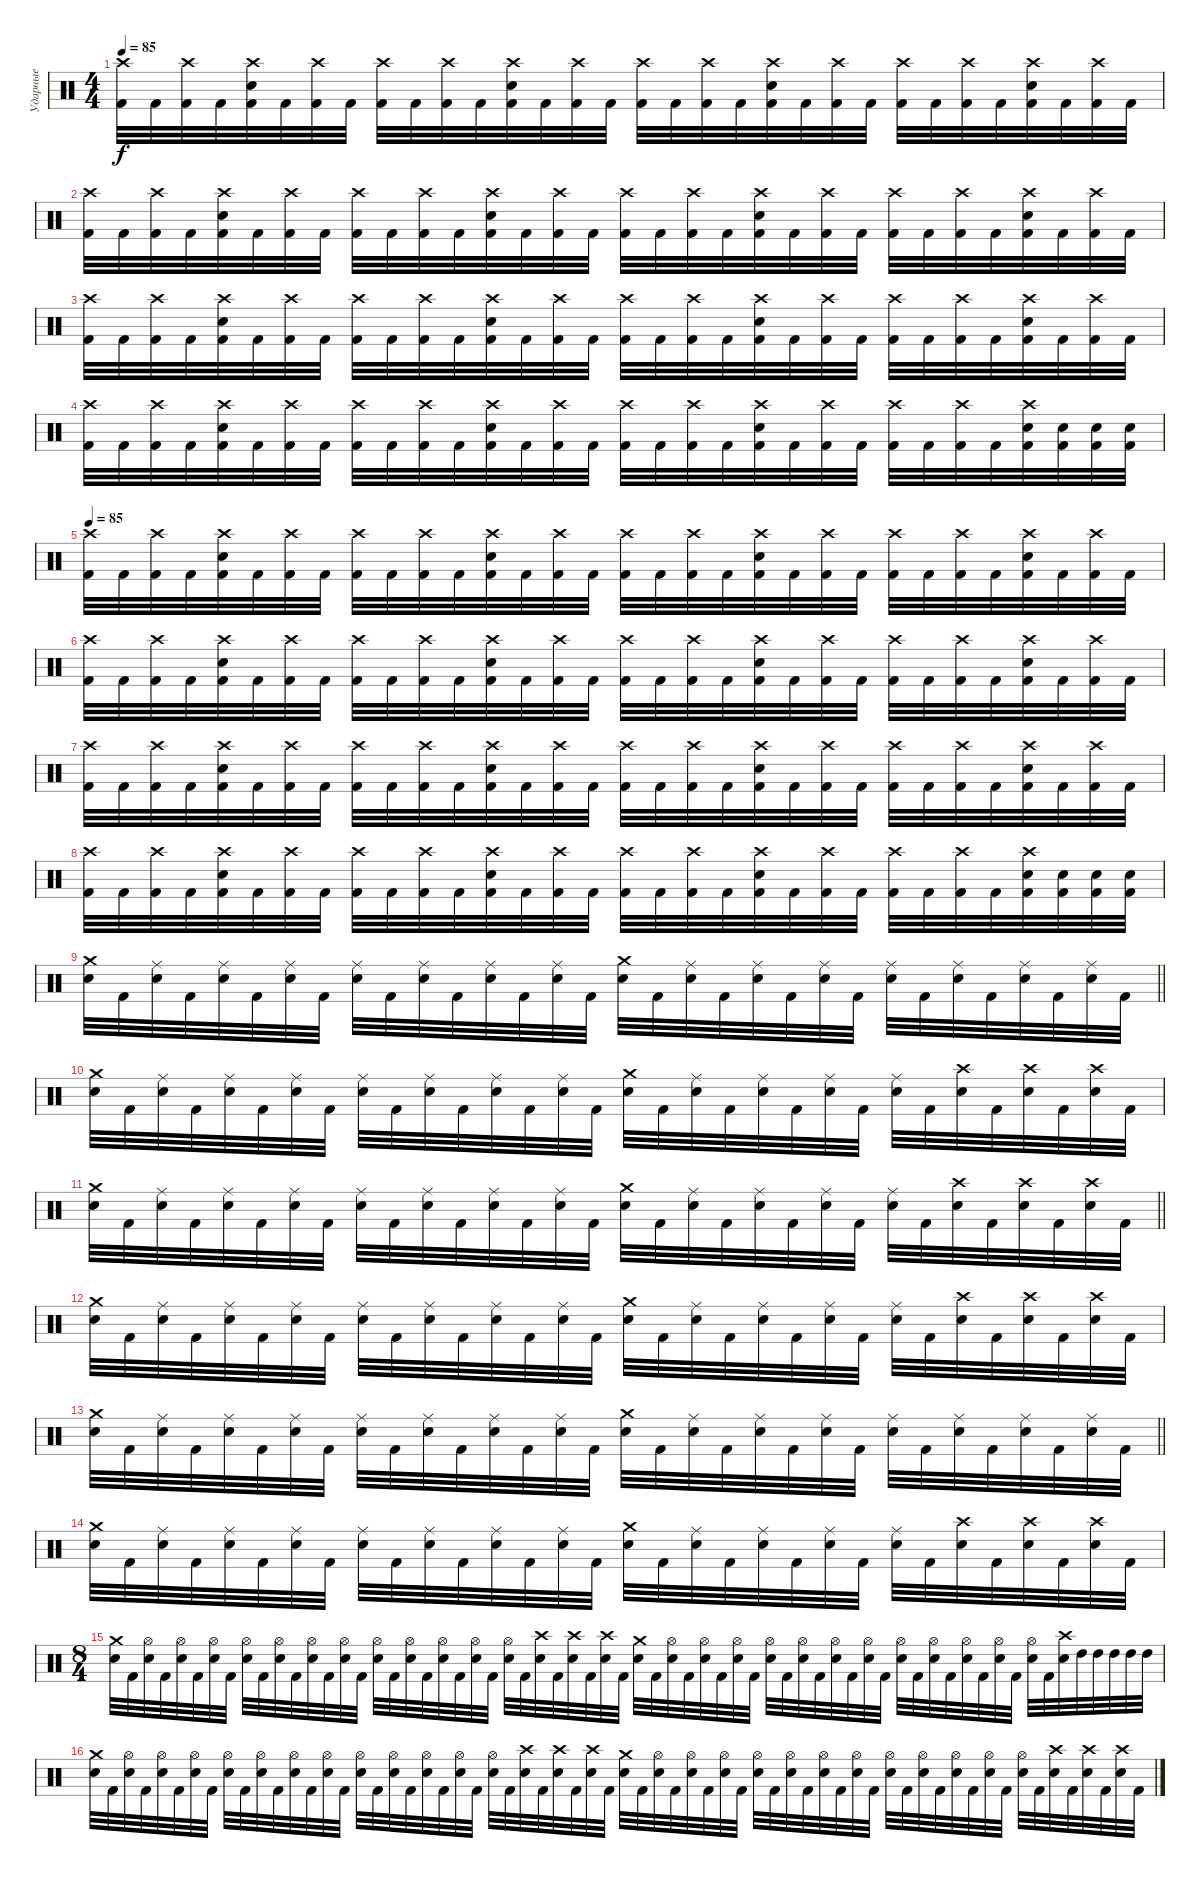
\track ("Ударные" "Ударные") {instrument percussion}
\staff {score}
\articulation defaults
\ts (4 4)
\tempo 85
\clef neutral
\ks c
("Kick (hit) 2" "Crash high (hit)").32{dy f} "Kick (hit) 2".32 ("Kick (hit) 2" "Crash high (hit)").32 "Kick (hit) 2".32 ("Kick (hit) 2" "Snare (hit) 2" "Crash high (hit)").32 "Kick (hit) 2".32 ("Kick (hit) 2" "Crash high (hit)").32 "Kick (hit) 2".32 ("Kick (hit) 2" "Crash high (hit)").32 "Kick (hit) 2".32 ("Kick (hit) 2" "Crash high (hit)").32 "Kick (hit) 2".32 ("Kick (hit) 2" "Snare (hit) 2" "Crash high (hit)").32 "Kick (hit) 2".32 ("Kick (hit) 2" "Crash high (hit)").32 "Kick (hit) 2".32 ("Kick (hit) 2" "Crash high (hit)").32 "Kick (hit) 2".32 ("Kick (hit) 2" "Crash high (hit)").32 "Kick (hit) 2".32 ("Kick (hit) 2" "Snare (hit) 2" "Crash high (hit)").32 "Kick (hit) 2".32 ("Kick (hit) 2" "Crash high (hit)").32 "Kick (hit) 2".32 ("Kick (hit) 2" "Crash high (hit)").32 "Kick (hit) 2".32 ("Kick (hit) 2" "Crash high (hit)").32 "Kick (hit) 2".32 ("Kick (hit) 2" "Snare (hit) 2" "Crash high (hit)").32 "Kick (hit) 2".32 ("Kick (hit) 2" "Crash high (hit)").32 "Kick (hit) 2".32 |
("Kick (hit) 2" "Crash high (hit)").32 "Kick (hit) 2".32 ("Kick (hit) 2" "Crash high (hit)").32 "Kick (hit) 2".32 ("Kick (hit) 2" "Snare (hit) 2" "Crash high (hit)").32 "Kick (hit) 2".32 ("Kick (hit) 2" "Crash high (hit)").32 "Kick (hit) 2".32 ("Kick (hit) 2" "Crash high (hit)").32 "Kick (hit) 2".32 ("Kick (hit) 2" "Crash high (hit)").32 "Kick (hit) 2".32 ("Kick (hit) 2" "Snare (hit) 2" "Crash high (hit)").32 "Kick (hit) 2".32 ("Kick (hit) 2" "Crash high (hit)").32 "Kick (hit) 2".32 ("Kick (hit) 2" "Crash high (hit)").32 "Kick (hit) 2".32 ("Kick (hit) 2" "Crash high (hit)").32 "Kick (hit) 2".32 ("Kick (hit) 2" "Snare (hit) 2" "Crash high (hit)").32 "Kick (hit) 2".32 ("Kick (hit) 2" "Crash high (hit)").32 "Kick (hit) 2".32 ("Kick (hit) 2" "Crash high (hit)").32 "Kick (hit) 2".32 ("Kick (hit) 2" "Crash high (hit)").32 "Kick (hit) 2".32 ("Kick (hit) 2" "Snare (hit) 2" "Crash high (hit)").32 "Kick (hit) 2".32 ("Kick (hit) 2" "Crash high (hit)").32 "Kick (hit) 2".32 |
("Kick (hit) 2" "Crash high (hit)").32 "Kick (hit) 2".32 ("Kick (hit) 2" "Crash high (hit)").32 "Kick (hit) 2".32 ("Kick (hit) 2" "Snare (hit) 2" "Crash high (hit)").32 "Kick (hit) 2".32 ("Kick (hit) 2" "Crash high (hit)").32 "Kick (hit) 2".32 ("Kick (hit) 2" "Crash high (hit)").32 "Kick (hit) 2".32 ("Kick (hit) 2" "Crash high (hit)").32 "Kick (hit) 2".32 ("Kick (hit) 2" "Snare (hit) 2" "Crash high (hit)").32 "Kick (hit) 2".32 ("Kick (hit) 2" "Crash high (hit)").32 "Kick (hit) 2".32 ("Kick (hit) 2" "Crash high (hit)").32 "Kick (hit) 2".32 ("Kick (hit) 2" "Crash high (hit)").32 "Kick (hit) 2".32 ("Kick (hit) 2" "Snare (hit) 2" "Crash high (hit)").32 "Kick (hit) 2".32 ("Kick (hit) 2" "Crash high (hit)").32 "Kick (hit) 2".32 ("Kick (hit) 2" "Crash high (hit)").32 "Kick (hit) 2".32 ("Kick (hit) 2" "Crash high (hit)").32 "Kick (hit) 2".32 ("Kick (hit) 2" "Snare (hit) 2" "Crash high (hit)").32 "Kick (hit) 2".32 ("Kick (hit) 2" "Crash high (hit)").32 "Kick (hit) 2".32 |
("Kick (hit) 2" "Crash high (hit)").32 "Kick (hit) 2".32 ("Kick (hit) 2" "Crash high (hit)").32 "Kick (hit) 2".32 ("Kick (hit) 2" "Snare (hit) 2" "Crash high (hit)").32 "Kick (hit) 2".32 ("Kick (hit) 2" "Crash high (hit)").32 "Kick (hit) 2".32 ("Kick (hit) 2" "Crash high (hit)").32 "Kick (hit) 2".32 ("Kick (hit) 2" "Crash high (hit)").32 "Kick (hit) 2".32 ("Kick (hit) 2" "Snare (hit) 2" "Crash high (hit)").32 "Kick (hit) 2".32 ("Kick (hit) 2" "Crash high (hit)").32 "Kick (hit) 2".32 ("Kick (hit) 2" "Crash high (hit)").32 "Kick (hit) 2".32 ("Kick (hit) 2" "Crash high (hit)").32 "Kick (hit) 2".32 ("Kick (hit) 2" "Snare (hit) 2" "Crash high (hit)").32 "Kick (hit) 2".32 ("Kick (hit) 2" "Crash high (hit)").32 "Kick (hit) 2".32 ("Kick (hit) 2" "Crash high (hit)").32 "Kick (hit) 2".32 ("Kick (hit) 2" "Crash high (hit)").32 "Kick (hit) 2".32 ("Kick (hit) 2" "Snare (hit) 2" "Crash high (hit)").32 ("Kick (hit) 2" "Snare (hit) 2").32 ("Kick (hit) 2" "Snare (hit) 2").32 ("Kick (hit) 2" "Snare (hit) 2").32 |
\tempo 85
("Kick (hit) 2" "Crash high (hit)").32 "Kick (hit) 2".32 ("Kick (hit) 2" "Crash high (hit)").32 "Kick (hit) 2".32 ("Kick (hit) 2" "Snare (hit) 2" "Crash high (hit)").32 "Kick (hit) 2".32 ("Kick (hit) 2" "Crash high (hit)").32 "Kick (hit) 2".32 ("Kick (hit) 2" "Crash high (hit)").32 "Kick (hit) 2".32 ("Kick (hit) 2" "Crash high (hit)").32 "Kick (hit) 2".32 ("Kick (hit) 2" "Snare (hit) 2" "Crash high (hit)").32 "Kick (hit) 2".32 ("Kick (hit) 2" "Crash high (hit)").32 "Kick (hit) 2".32 ("Kick (hit) 2" "Crash high (hit)").32 "Kick (hit) 2".32 ("Kick (hit) 2" "Crash high (hit)").32 "Kick (hit) 2".32 ("Kick (hit) 2" "Snare (hit) 2" "Crash high (hit)").32 "Kick (hit) 2".32 ("Kick (hit) 2" "Crash high (hit)").32 "Kick (hit) 2".32 ("Kick (hit) 2" "Crash high (hit)").32 "Kick (hit) 2".32 ("Kick (hit) 2" "Crash high (hit)").32 "Kick (hit) 2".32 ("Kick (hit) 2" "Snare (hit) 2" "Crash high (hit)").32 "Kick (hit) 2".32 ("Kick (hit) 2" "Crash high (hit)").32 "Kick (hit) 2".32 |
("Kick (hit) 2" "Crash high (hit)").32 "Kick (hit) 2".32 ("Kick (hit) 2" "Crash high (hit)").32 "Kick (hit) 2".32 ("Kick (hit) 2" "Snare (hit) 2" "Crash high (hit)").32 "Kick (hit) 2".32 ("Kick (hit) 2" "Crash high (hit)").32 "Kick (hit) 2".32 ("Kick (hit) 2" "Crash high (hit)").32 "Kick (hit) 2".32 ("Kick (hit) 2" "Crash high (hit)").32 "Kick (hit) 2".32 ("Kick (hit) 2" "Snare (hit) 2" "Crash high (hit)").32 "Kick (hit) 2".32 ("Kick (hit) 2" "Crash high (hit)").32 "Kick (hit) 2".32 ("Kick (hit) 2" "Crash high (hit)").32 "Kick (hit) 2".32 ("Kick (hit) 2" "Crash high (hit)").32 "Kick (hit) 2".32 ("Kick (hit) 2" "Snare (hit) 2" "Crash high (hit)").32 "Kick (hit) 2".32 ("Kick (hit) 2" "Crash high (hit)").32 "Kick (hit) 2".32 ("Kick (hit) 2" "Crash high (hit)").32 "Kick (hit) 2".32 ("Kick (hit) 2" "Crash high (hit)").32 "Kick (hit) 2".32 ("Kick (hit) 2" "Snare (hit) 2" "Crash high (hit)").32 "Kick (hit) 2".32 ("Kick (hit) 2" "Crash high (hit)").32 "Kick (hit) 2".32 |
("Kick (hit) 2" "Crash high (hit)").32 "Kick (hit) 2".32 ("Kick (hit) 2" "Crash high (hit)").32 "Kick (hit) 2".32 ("Kick (hit) 2" "Snare (hit) 2" "Crash high (hit)").32 "Kick (hit) 2".32 ("Kick (hit) 2" "Crash high (hit)").32 "Kick (hit) 2".32 ("Kick (hit) 2" "Crash high (hit)").32 "Kick (hit) 2".32 ("Kick (hit) 2" "Crash high (hit)").32 "Kick (hit) 2".32 ("Kick (hit) 2" "Snare (hit) 2" "Crash high (hit)").32 "Kick (hit) 2".32 ("Kick (hit) 2" "Crash high (hit)").32 "Kick (hit) 2".32 ("Kick (hit) 2" "Crash high (hit)").32 "Kick (hit) 2".32 ("Kick (hit) 2" "Crash high (hit)").32 "Kick (hit) 2".32 ("Kick (hit) 2" "Snare (hit) 2" "Crash high (hit)").32 "Kick (hit) 2".32 ("Kick (hit) 2" "Crash high (hit)").32 "Kick (hit) 2".32 ("Kick (hit) 2" "Crash high (hit)").32 "Kick (hit) 2".32 ("Kick (hit) 2" "Crash high (hit)").32 "Kick (hit) 2".32 ("Kick (hit) 2" "Snare (hit) 2" "Crash high (hit)").32 "Kick (hit) 2".32 ("Kick (hit) 2" "Crash high (hit)").32 "Kick (hit) 2".32 |
("Kick (hit) 2" "Crash high (hit)").32 "Kick (hit) 2".32 ("Kick (hit) 2" "Crash high (hit)").32 "Kick (hit) 2".32 ("Kick (hit) 2" "Snare (hit) 2" "Crash high (hit)").32 "Kick (hit) 2".32 ("Kick (hit) 2" "Crash high (hit)").32 "Kick (hit) 2".32 ("Kick (hit) 2" "Crash high (hit)").32 "Kick (hit) 2".32 ("Kick (hit) 2" "Crash high (hit)").32 "Kick (hit) 2".32 ("Kick (hit) 2" "Snare (hit) 2" "Crash high (hit)").32 "Kick (hit) 2".32 ("Kick (hit) 2" "Crash high (hit)").32 "Kick (hit) 2".32 ("Kick (hit) 2" "Crash high (hit)").32 "Kick (hit) 2".32 ("Kick (hit) 2" "Crash high (hit)").32 "Kick (hit) 2".32 ("Kick (hit) 2" "Snare (hit) 2" "Crash high (hit)").32 "Kick (hit) 2".32 ("Kick (hit) 2" "Crash high (hit)").32 "Kick (hit) 2".32 ("Kick (hit) 2" "Crash high (hit)").32 "Kick (hit) 2".32 ("Kick (hit) 2" "Crash high (hit)").32 "Kick (hit) 2".32 ("Kick (hit) 2" "Snare (hit) 2" "Crash high (hit)").32 ("Kick (hit) 2" "Snare (hit) 2").32 ("Kick (hit) 2" "Snare (hit) 2").32 ("Kick (hit) 2" "Snare (hit) 2").32 |
\barLineRight lightlight
("Crash medium (hit)" "Electric Snare (hit)").32 "Kick (hit) 2".32 ("Ride (middle)" "Electric Snare (hit)").32 "Kick (hit) 2".32 ("Ride (middle)" "Electric Snare (hit)").32 "Kick (hit) 2".32 ("Ride (middle)" "Electric Snare (hit)").32 "Kick (hit) 2".32 ("Ride (middle)" "Electric Snare (hit)").32 "Kick (hit) 2".32 ("Ride (middle)" "Electric Snare (hit)").32 "Kick (hit) 2".32 ("Ride (middle)" "Electric Snare (hit)").32 "Kick (hit) 2".32 ("Ride (middle)" "Electric Snare (hit)").32 "Kick (hit) 2".32 ("Crash medium (hit)" "Electric Snare (hit)").32 "Kick (hit) 2".32 ("Ride (middle)" "Electric Snare (hit)").32 "Kick (hit) 2".32 ("Ride (middle)" "Electric Snare (hit)").32 "Kick (hit) 2".32 ("Ride (middle)" "Electric Snare (hit)").32 "Kick (hit) 2".32 ("Ride (middle)" "Electric Snare (hit)").32 "Kick (hit) 2".32 ("Ride (middle)" "Electric Snare (hit)").32 "Kick (hit) 2".32 ("Ride (middle)" "Electric Snare (hit)").32 "Kick (hit) 2".32 ("Ride (middle)" "Electric Snare (hit)").32 "Kick (hit) 2".32 |
("Crash medium (hit)" "Electric Snare (hit)").32 "Kick (hit) 2".32 ("Ride (middle)" "Electric Snare (hit)").32 "Kick (hit) 2".32 ("Ride (middle)" "Electric Snare (hit)").32 "Kick (hit) 2".32 ("Ride (middle)" "Electric Snare (hit)").32 "Kick (hit) 2".32 ("Ride (middle)" "Electric Snare (hit)").32 "Kick (hit) 2".32 ("Ride (middle)" "Electric Snare (hit)").32 "Kick (hit) 2".32 ("Ride (middle)" "Electric Snare (hit)").32 "Kick (hit) 2".32 ("Ride (middle)" "Electric Snare (hit)").32 "Kick (hit) 2".32 ("Crash medium (hit)" "Electric Snare (hit)").32 "Kick (hit) 2".32 ("Ride (middle)" "Electric Snare (hit)").32 "Kick (hit) 2".32 ("Ride (middle)" "Electric Snare (hit)").32 "Kick (hit) 2".32 ("Ride (middle)" "Electric Snare (hit)").32 "Kick (hit) 2".32 ("Ride (middle)" "Electric Snare (hit)").32 "Kick (hit) 2".32 ("Crash high (hit)" "Electric Snare (hit)").32 "Kick (hit) 2".32 ("Crash high (hit)" "Electric Snare (hit)").32 "Kick (hit) 2".32 ("Crash high (hit)" "Electric Snare (hit)").32 "Kick (hit) 2".32 |
\barLineRight lightlight
("Crash medium (hit)" "Electric Snare (hit)").32 "Kick (hit) 2".32 ("Ride (middle)" "Electric Snare (hit)").32 "Kick (hit) 2".32 ("Ride (middle)" "Electric Snare (hit)").32 "Kick (hit) 2".32 ("Ride (middle)" "Electric Snare (hit)").32 "Kick (hit) 2".32 ("Ride (middle)" "Electric Snare (hit)").32 "Kick (hit) 2".32 ("Ride (middle)" "Electric Snare (hit)").32 "Kick (hit) 2".32 ("Ride (middle)" "Electric Snare (hit)").32 "Kick (hit) 2".32 ("Ride (middle)" "Electric Snare (hit)").32 "Kick (hit) 2".32 ("Crash medium (hit)" "Electric Snare (hit)").32 "Kick (hit) 2".32 ("Ride (middle)" "Electric Snare (hit)").32 "Kick (hit) 2".32 ("Ride (middle)" "Electric Snare (hit)").32 "Kick (hit) 2".32 ("Ride (middle)" "Electric Snare (hit)").32 "Kick (hit) 2".32 ("Ride (middle)" "Electric Snare (hit)").32 "Kick (hit) 2".32 ("Crash high (hit)" "Electric Snare (hit)").32 "Kick (hit) 2".32 ("Crash high (hit)" "Electric Snare (hit)").32 "Kick (hit) 2".32 ("Crash high (hit)" "Electric Snare (hit)").32 "Kick (hit) 2".32 |
("Crash medium (hit)" "Electric Snare (hit)").32 "Kick (hit) 2".32 ("Ride (middle)" "Electric Snare (hit)").32 "Kick (hit) 2".32 ("Ride (middle)" "Electric Snare (hit)").32 "Kick (hit) 2".32 ("Ride (middle)" "Electric Snare (hit)").32 "Kick (hit) 2".32 ("Ride (middle)" "Electric Snare (hit)").32 "Kick (hit) 2".32 ("Ride (middle)" "Electric Snare (hit)").32 "Kick (hit) 2".32 ("Ride (middle)" "Electric Snare (hit)").32 "Kick (hit) 2".32 ("Ride (middle)" "Electric Snare (hit)").32 "Kick (hit) 2".32 ("Crash medium (hit)" "Electric Snare (hit)").32 "Kick (hit) 2".32 ("Ride (middle)" "Electric Snare (hit)").32 "Kick (hit) 2".32 ("Ride (middle)" "Electric Snare (hit)").32 "Kick (hit) 2".32 ("Ride (middle)" "Electric Snare (hit)").32 "Kick (hit) 2".32 ("Ride (middle)" "Electric Snare (hit)").32 "Kick (hit) 2".32 ("Crash high (hit)" "Electric Snare (hit)").32 "Kick (hit) 2".32 ("Crash high (hit)" "Electric Snare (hit)").32 "Kick (hit) 2".32 ("Crash high (hit)" "Electric Snare (hit)").32 "Kick (hit) 2".32 |
\barLineRight lightlight
("Crash medium (hit)" "Electric Snare (hit)").32 "Kick (hit) 2".32 ("Ride (middle)" "Electric Snare (hit)").32 "Kick (hit) 2".32 ("Ride (middle)" "Electric Snare (hit)").32 "Kick (hit) 2".32 ("Ride (middle)" "Electric Snare (hit)").32 "Kick (hit) 2".32 ("Ride (middle)" "Electric Snare (hit)").32 "Kick (hit) 2".32 ("Ride (middle)" "Electric Snare (hit)").32 "Kick (hit) 2".32 ("Ride (middle)" "Electric Snare (hit)").32 "Kick (hit) 2".32 ("Ride (middle)" "Electric Snare (hit)").32 "Kick (hit) 2".32 ("Crash medium (hit)" "Electric Snare (hit)").32 "Kick (hit) 2".32 ("Ride (middle)" "Electric Snare (hit)").32 "Kick (hit) 2".32 ("Ride (middle)" "Electric Snare (hit)").32 "Kick (hit) 2".32 ("Ride (middle)" "Electric Snare (hit)").32 "Kick (hit) 2".32 ("Ride (middle)" "Electric Snare (hit)").32 "Kick (hit) 2".32 ("Ride (middle)" "Electric Snare (hit)").32 "Kick (hit) 2".32 ("Ride (middle)" "Electric Snare (hit)").32 "Kick (hit) 2".32 ("Ride (middle)" "Electric Snare (hit)").32 "Kick (hit) 2".32 |
("Crash medium (hit)" "Electric Snare (hit)").32 "Kick (hit) 2".32 ("Ride (middle)" "Electric Snare (hit)").32 "Kick (hit) 2".32 ("Ride (middle)" "Electric Snare (hit)").32 "Kick (hit) 2".32 ("Ride (middle)" "Electric Snare (hit)").32 "Kick (hit) 2".32 ("Ride (middle)" "Electric Snare (hit)").32 "Kick (hit) 2".32 ("Ride (middle)" "Electric Snare (hit)").32 "Kick (hit) 2".32 ("Ride (middle)" "Electric Snare (hit)").32 "Kick (hit) 2".32 ("Ride (middle)" "Electric Snare (hit)").32 "Kick (hit) 2".32 ("Crash medium (hit)" "Electric Snare (hit)").32 "Kick (hit) 2".32 ("Ride (middle)" "Electric Snare (hit)").32 "Kick (hit) 2".32 ("Ride (middle)" "Electric Snare (hit)").32 "Kick (hit) 2".32 ("Ride (middle)" "Electric Snare (hit)").32 "Kick (hit) 2".32 ("Ride (middle)" "Electric Snare (hit)").32 "Kick (hit) 2".32 ("Crash high (hit)" "Electric Snare (hit)").32 "Kick (hit) 2".32 ("Crash high (hit)" "Electric Snare (hit)").32 "Kick (hit) 2".32 ("Crash high (hit)" "Electric Snare (hit)").32 "Kick (hit) 2".32 |
\ts (8 4)
("Crash medium (hit)" "Electric Snare (hit)").32 "Kick (hit) 2".32 ("Hi-Hat (open)" "Electric Snare (hit)").32 "Kick (hit) 2".32 ("Hi-Hat (open)" "Electric Snare (hit)").32 "Kick (hit) 2".32 ("Hi-Hat (open)" "Electric Snare (hit)").32 "Kick (hit) 2".32 ("Hi-Hat (open)" "Electric Snare (hit)").32 "Kick (hit) 2".32 ("Hi-Hat (open)" "Electric Snare (hit)").32 "Kick (hit) 2".32 ("Hi-Hat (open)" "Electric Snare (hit)").32 "Kick (hit) 2".32 ("Hi-Hat (open)" "Electric Snare (hit)").32 "Kick (hit) 2".32 ("Hi-Hat (open)" "Electric Snare (hit)").32 "Kick (hit) 2".32 ("Hi-Hat (open)" "Electric Snare (hit)").32 "Kick (hit) 2".32 ("Hi-Hat (open)" "Electric Snare (hit)").32 "Kick (hit) 2".32 ("Hi-Hat (open)" "Electric Snare (hit)").32 "Kick (hit) 2".32 ("Hi-Hat (open)" "Electric Snare (hit)").32 "Kick (hit) 2".32 ("Crash high (hit)" "Electric Snare (hit)").32 "Kick (hit) 2".32 ("Crash high (hit)" "Electric Snare (hit)").32 "Kick (hit) 2".32 ("Crash high (hit)" "Electric Snare (hit)").32 "Kick (hit) 2".32 ("Crash medium (hit)" "Electric Snare (hit)").32 "Kick (hit) 2".32 ("Hi-Hat (open)" "Electric Snare (hit)").32 "Kick (hit) 2".32 ("Hi-Hat (open)" "Electric Snare (hit)").32 "Kick (hit) 2".32 ("Hi-Hat (open)" "Electric Snare (hit)").32 "Kick (hit) 2".32 ("Hi-Hat (open)" "Electric Snare (hit)").32 "Kick (hit) 2".32 ("Hi-Hat (open)" "Electric Snare (hit)").32 "Kick (hit) 2".32 ("Hi-Hat (open)" "Electric Snare (hit)").32 "Kick (hit) 2".32 ("Hi-Hat (open)" "Electric Snare (hit)").32 "Kick (hit) 2".32 ("Hi-Hat (open)" "Electric Snare (hit)").32 "Kick (hit) 2".32 ("Hi-Hat (open)" "Electric Snare (hit)").32 "Kick (hit) 2".32 ("Hi-Hat (open)" "Electric Snare (hit)").32 "Kick (hit) 2".32 ("Hi-Hat (open)" "Electric Snare (hit)").32 "Kick (hit) 2".32 ("Hi-Hat (open)" "Electric Snare (hit)").32 "Kick (hit) 2".32 ("Crash high (hit)" "Electric Snare (hit)").32 "High Tom (hit)".32 "High Tom (hit)".32 "High Tom (hit)".32 "High Tom (hit)".32 "High Tom (hit)".32 |
("Crash medium (hit)" "Electric Snare (hit)").32 "Kick (hit) 2".32 ("Hi-Hat (open)" "Electric Snare (hit)").32 "Kick (hit) 2".32 ("Hi-Hat (open)" "Electric Snare (hit)").32 "Kick (hit) 2".32 ("Hi-Hat (open)" "Electric Snare (hit)").32 "Kick (hit) 2".32 ("Hi-Hat (open)" "Electric Snare (hit)").32 "Kick (hit) 2".32 ("Hi-Hat (open)" "Electric Snare (hit)").32 "Kick (hit) 2".32 ("Hi-Hat (open)" "Electric Snare (hit)").32 "Kick (hit) 2".32 ("Hi-Hat (open)" "Electric Snare (hit)").32 "Kick (hit) 2".32 ("Hi-Hat (open)" "Electric Snare (hit)").32 "Kick (hit) 2".32 ("Hi-Hat (open)" "Electric Snare (hit)").32 "Kick (hit) 2".32 ("Hi-Hat (open)" "Electric Snare (hit)").32 "Kick (hit) 2".32 ("Hi-Hat (open)" "Electric Snare (hit)").32 "Kick (hit) 2".32 ("Hi-Hat (open)" "Electric Snare (hit)").32 "Kick (hit) 2".32 ("Crash high (hit)" "Electric Snare (hit)").32 "Kick (hit) 2".32 ("Crash high (hit)" "Electric Snare (hit)").32 "Kick (hit) 2".32 ("Crash high (hit)" "Electric Snare (hit)").32 "Kick (hit) 2".32 ("Crash medium (hit)" "Electric Snare (hit)").32 "Kick (hit) 2".32 ("Hi-Hat (open)" "Electric Snare (hit)").32 "Kick (hit) 2".32 ("Hi-Hat (open)" "Electric Snare (hit)").32 "Kick (hit) 2".32 ("Hi-Hat (open)" "Electric Snare (hit)").32 "Kick (hit) 2".32 ("Hi-Hat (open)" "Electric Snare (hit)").32 "Kick (hit) 2".32 ("Hi-Hat (open)" "Electric Snare (hit)").32 "Kick (hit) 2".32 ("Hi-Hat (open)" "Electric Snare (hit)").32 "Kick (hit) 2".32 ("Hi-Hat (open)" "Electric Snare (hit)").32 "Kick (hit) 2".32 ("Hi-Hat (open)" "Electric Snare (hit)").32 "Kick (hit) 2".32 ("Hi-Hat (open)" "Electric Snare (hit)").32 "Kick (hit) 2".32 ("Hi-Hat (open)" "Electric Snare (hit)").32 "Kick (hit) 2".32 ("Hi-Hat (open)" "Electric Snare (hit)").32 "Kick (hit) 2".32 ("Hi-Hat (open)" "Electric Snare (hit)").32 "Kick (hit) 2".32 ("Crash high (hit)" "Electric Snare (hit)").32 "Kick (hit) 2".32 ("Crash high (hit)" "Electric Snare (hit)").32 "Kick (hit) 2".32 ("Crash high (hit)" "Electric Snare (hit)").32 "Kick (hit) 2".32
